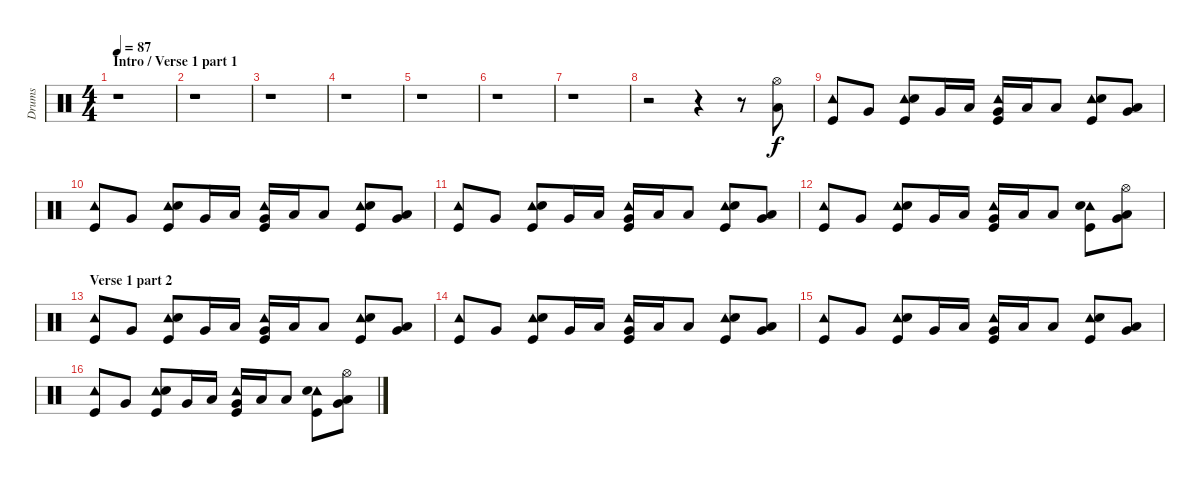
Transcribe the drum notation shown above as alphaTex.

\track ("Drums" "Drums") {instrument percussion}
\staff {score}
\articulation defaults
\ts (4 4)
\section ("" "Intro / Verse 1 part 1")
\tempo 87
\clef neutral
\ks c
r.1{dy f} |
r.1 |
r.1 |
r.1 |
r.1 |
r.1 |
r.1 |
r.2 r.4 r.8 ("Hi-Hat (open)" "Low Tom (hit)").8 |
("Tambourine (hit)" "Kick (hit)").8 "Very Low Tom (hit)".8 ("Tambourine (hit)" "Snare (hit) 2" "Kick (hit)").8 "Very Low Tom (hit)".16 "Low Tom (hit)".16 ("Tambourine (hit)" "Very Low Tom (hit)" "Kick (hit)").16 "Low Tom (hit)".16 "Low Floor Tom (hit)".8 ("Tambourine (hit)" "Snare (hit) 2" "Kick (hit)").8 ("Low Tom (hit)" "Very Low Tom (hit)").8 |
("Tambourine (hit)" "Kick (hit)").8 "Very Low Tom (hit)".8 ("Tambourine (hit)" "Snare (hit) 2" "Kick (hit)").8 "Very Low Tom (hit)".16 "Low Tom (hit)".16 ("Tambourine (hit)" "Very Low Tom (hit)" "Kick (hit)").16 "Low Tom (hit)".16 "Low Floor Tom (hit)".8 ("Tambourine (hit)" "Snare (hit) 2" "Kick (hit)").8 ("Low Tom (hit)" "Very Low Tom (hit)").8 |
("Tambourine (hit)" "Kick (hit)").8 "Very Low Tom (hit)".8 ("Tambourine (hit)" "Snare (hit) 2" "Kick (hit)").8 "Very Low Tom (hit)".16 "Low Tom (hit)".16 ("Tambourine (hit)" "Very Low Tom (hit)" "Kick (hit)").16 "Low Tom (hit)".16 "Low Floor Tom (hit)".8 ("Tambourine (hit)" "Snare (hit) 2" "Kick (hit)").8 ("Low Tom (hit)" "Very Low Tom (hit)").8 |
("Tambourine (hit)" "Kick (hit)").8 "Very Low Tom (hit)".8 ("Tambourine (hit)" "Snare (hit) 2" "Kick (hit)").8 "Very Low Tom (hit)".16 "Low Tom (hit)".16 ("Tambourine (hit)" "Very Low Tom (hit)" "Kick (hit)").16 "Low Tom (hit)".16 "Low Floor Tom (hit)".8 ("Tambourine (hit)" "Snare (hit) 2" "Kick (hit)").8 ("Hi-Hat (open)" "Low Tom (hit)" "Very Low Tom (hit)").8 |
\section ("" "Verse 1 part 2")
("Tambourine (hit)" "Kick (hit)").8 "Very Low Tom (hit)".8 ("Tambourine (hit)" "Snare (hit) 2" "Kick (hit)").8 "Very Low Tom (hit)".16 "Low Tom (hit)".16 ("Tambourine (hit)" "Very Low Tom (hit)" "Kick (hit)").16 "Low Tom (hit)".16 "Low Floor Tom (hit)".8 ("Tambourine (hit)" "Snare (hit) 2" "Kick (hit)").8 ("Low Tom (hit)" "Very Low Tom (hit)").8 |
("Tambourine (hit)" "Kick (hit)").8 "Very Low Tom (hit)".8 ("Tambourine (hit)" "Snare (hit) 2" "Kick (hit)").8 "Very Low Tom (hit)".16 "Low Tom (hit)".16 ("Tambourine (hit)" "Very Low Tom (hit)" "Kick (hit)").16 "Low Tom (hit)".16 "Low Floor Tom (hit)".8 ("Tambourine (hit)" "Snare (hit) 2" "Kick (hit)").8 ("Low Tom (hit)" "Very Low Tom (hit)").8 |
("Tambourine (hit)" "Kick (hit)").8 "Very Low Tom (hit)".8 ("Tambourine (hit)" "Snare (hit) 2" "Kick (hit)").8 "Very Low Tom (hit)".16 "Low Tom (hit)".16 ("Tambourine (hit)" "Very Low Tom (hit)" "Kick (hit)").16 "Low Tom (hit)".16 "Low Floor Tom (hit)".8 ("Tambourine (hit)" "Snare (hit) 2" "Kick (hit)").8 ("Low Tom (hit)" "Very Low Tom (hit)").8 |
("Tambourine (hit)" "Kick (hit)").8 "Very Low Tom (hit)".8 ("Tambourine (hit)" "Snare (hit) 2" "Kick (hit)").8 "Very Low Tom (hit)".16 "Low Tom (hit)".16 ("Tambourine (hit)" "Very Low Tom (hit)" "Kick (hit)").16 "Low Tom (hit)".16 "Low Floor Tom (hit)".8 ("Tambourine (hit)" "Snare (hit) 2" "Kick (hit)").8 ("Hi-Hat (open)" "Low Tom (hit)" "Very Low Tom (hit)").8
